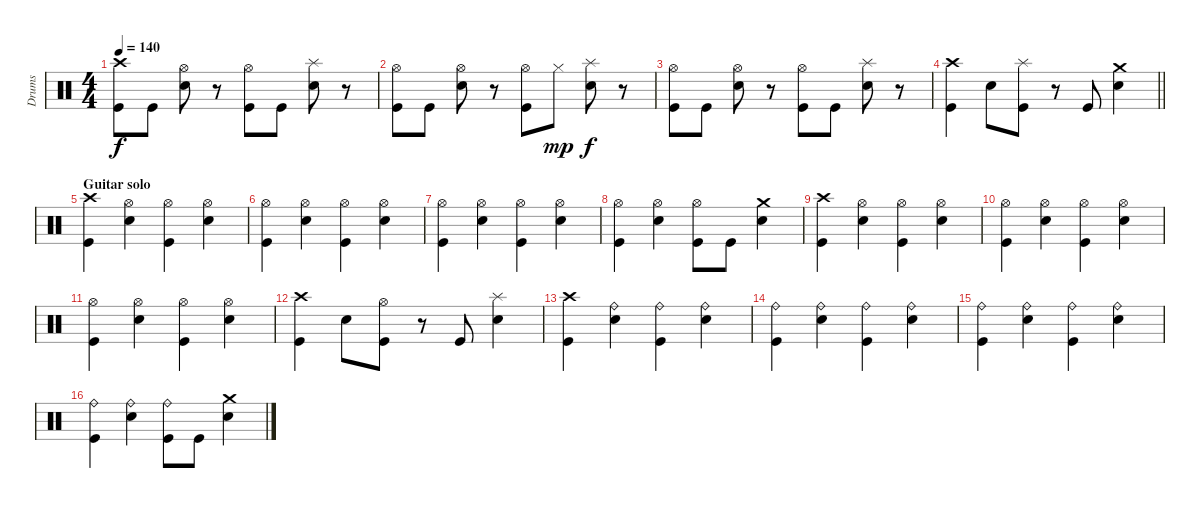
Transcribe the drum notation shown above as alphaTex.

\track ("Drums" "Drums") {instrument percussion}
\staff {score}
\articulation defaults
\ts (4 4)
\tempo 140
\clef neutral
\ks c
("Crash high (hit)" "Kick (hit)").8{dy f} "Kick (hit)".8 ("Hi-Hat (open)" "Electric Snare (hit)").8 r.8 ("Hi-Hat (open)" "Kick (hit)").8 "Kick (hit)".8 ("Splash (hit)" "Electric Snare (hit)").8 r.8 |
("Hi-Hat (open)" "Kick (hit)").8 "Kick (hit)".8 ("Hi-Hat (open)" "Electric Snare (hit)").8 r.8 ("Hi-Hat (open)" "Kick (hit)").8 "Hi-Hat (closed)".8{dy mp} ("Splash (hit)" "Electric Snare (hit)").8{dy f} r.8 |
("Hi-Hat (open)" "Kick (hit)").8 "Kick (hit)".8 ("Hi-Hat (open)" "Electric Snare (hit)").8 r.8 ("Hi-Hat (open)" "Kick (hit)").8 "Kick (hit)".8 ("Splash (hit)" "Electric Snare (hit)").8 r.8 |
\barLineRight lightlight
("Crash high (hit)" "Kick (hit)").4 "Electric Snare (hit)".8 ("Splash (hit)" "Kick (hit)").8 r.8 "Kick (hit)".8 ("Crash medium (hit)" "Electric Snare (hit)").4 |
\section ("" "Guitar solo")
("Crash high (hit)" "Kick (hit)").4 ("Hi-Hat (open)" "Electric Snare (hit)").4 ("Hi-Hat (open)" "Kick (hit)").4 ("Hi-Hat (open)" "Electric Snare (hit)").4 |
("Hi-Hat (open)" "Kick (hit)").4 ("Hi-Hat (open)" "Electric Snare (hit)").4 ("Hi-Hat (open)" "Kick (hit)").4 ("Hi-Hat (open)" "Electric Snare (hit)").4 |
("Hi-Hat (open)" "Kick (hit)").4 ("Hi-Hat (open)" "Electric Snare (hit)").4 ("Hi-Hat (open)" "Kick (hit)").4 ("Hi-Hat (open)" "Electric Snare (hit)").4 |
("Hi-Hat (open)" "Kick (hit)").4 ("Hi-Hat (open)" "Electric Snare (hit)").4 ("Hi-Hat (open)" "Kick (hit)").8 "Kick (hit)".8 ("Crash medium (hit)" "Electric Snare (hit)").4 |
("Crash high (hit)" "Kick (hit)").4 ("Hi-Hat (open)" "Electric Snare (hit)").4 ("Hi-Hat (open)" "Kick (hit)").4 ("Hi-Hat (open)" "Electric Snare (hit)").4 |
("Hi-Hat (open)" "Kick (hit)").4 ("Hi-Hat (open)" "Electric Snare (hit)").4 ("Hi-Hat (open)" "Kick (hit)").4 ("Hi-Hat (open)" "Electric Snare (hit)").4 |
("Hi-Hat (open)" "Kick (hit)").4 ("Hi-Hat (open)" "Electric Snare (hit)").4 ("Hi-Hat (open)" "Kick (hit)").4 ("Hi-Hat (open)" "Electric Snare (hit)").4 |
("Crash high (hit)" "Kick (hit)").4 "Electric Snare (hit)".8 ("Hi-Hat (open)" "Kick (hit)").8 r.8 "Kick (hit)".8 ("Splash (hit)" "Electric Snare (hit)").4 |
("Crash high (hit)" "Kick (hit)").4 ("Ride (bell)" "Electric Snare (hit)").4 ("Ride (bell)" "Kick (hit)").4 ("Ride (bell)" "Electric Snare (hit)").4 |
("Ride (bell)" "Kick (hit)").4 ("Ride (bell)" "Electric Snare (hit)").4 ("Ride (bell)" "Kick (hit)").4 ("Ride (bell)" "Electric Snare (hit)").4 |
("Ride (bell)" "Kick (hit)").4 ("Ride (bell)" "Electric Snare (hit)").4 ("Ride (bell)" "Kick (hit)").4 ("Ride (bell)" "Electric Snare (hit)").4 |
("Ride (bell)" "Kick (hit)").4 ("Ride (bell)" "Electric Snare (hit)").4 ("Ride (bell)" "Kick (hit)").8 "Kick (hit)".8 ("Crash medium (hit)" "Electric Snare (hit)").4
